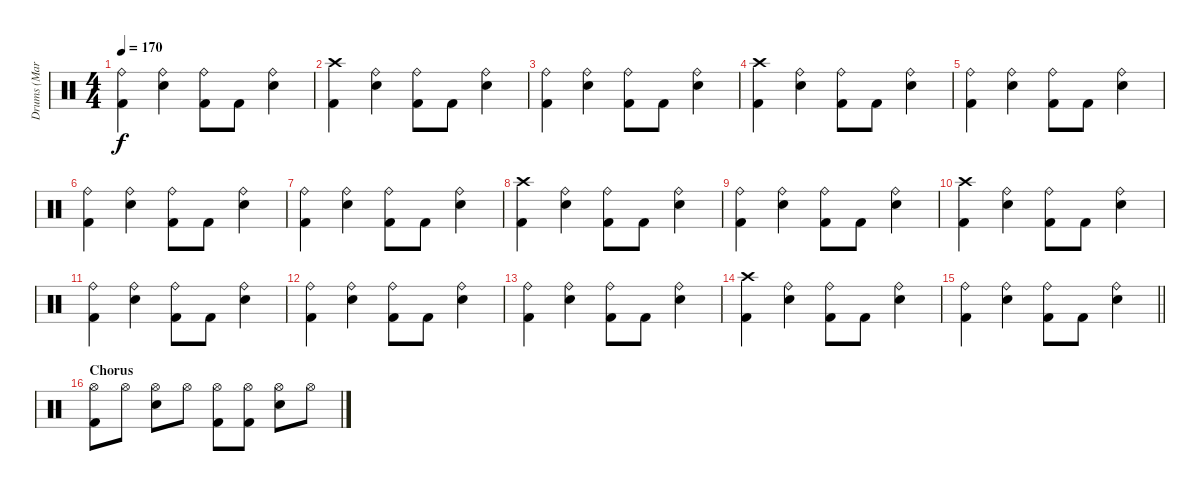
\track ("Drums (Marky)" "Drums (Mar") {instrument percussion}
\staff {score}
\articulation defaults
\ts (4 4)
\tempo 170
\clef neutral
\ks c
("Ride (bell)" "Kick (hit) 2").4{dy f} ("Ride (bell)" "Snare (hit) 2").4 ("Ride (bell)" "Kick (hit) 2").8 "Kick (hit) 2".8 ("Ride (bell)" "Snare (hit) 2").4 |
("Crash high (hit)" "Kick (hit) 2").4 ("Ride (bell)" "Snare (hit) 2").4 ("Ride (bell)" "Kick (hit) 2").8 "Kick (hit) 2".8 ("Ride (bell)" "Snare (hit) 2").4 |
("Ride (bell)" "Kick (hit) 2").4 ("Ride (bell)" "Snare (hit) 2").4 ("Ride (bell)" "Kick (hit) 2").8 "Kick (hit) 2".8 ("Ride (bell)" "Snare (hit) 2").4 |
("Crash high (hit)" "Kick (hit) 2").4 ("Ride (bell)" "Snare (hit) 2").4 ("Ride (bell)" "Kick (hit) 2").8 "Kick (hit) 2".8 ("Ride (bell)" "Snare (hit) 2").4 |
("Ride (bell)" "Kick (hit) 2").4 ("Ride (bell)" "Snare (hit) 2").4 ("Ride (bell)" "Kick (hit) 2").8 "Kick (hit) 2".8 ("Ride (bell)" "Snare (hit) 2").4 |
("Ride (bell)" "Kick (hit) 2").4 ("Ride (bell)" "Snare (hit) 2").4 ("Ride (bell)" "Kick (hit) 2").8 "Kick (hit) 2".8 ("Ride (bell)" "Snare (hit) 2").4 |
("Ride (bell)" "Kick (hit) 2").4 ("Ride (bell)" "Snare (hit) 2").4 ("Ride (bell)" "Kick (hit) 2").8 "Kick (hit) 2".8 ("Ride (bell)" "Snare (hit) 2").4 |
("Crash high (hit)" "Kick (hit) 2").4 ("Ride (bell)" "Snare (hit) 2").4 ("Ride (bell)" "Kick (hit) 2").8 "Kick (hit) 2".8 ("Ride (bell)" "Snare (hit) 2").4 |
("Ride (bell)" "Kick (hit) 2").4 ("Ride (bell)" "Snare (hit) 2").4 ("Ride (bell)" "Kick (hit) 2").8 "Kick (hit) 2".8 ("Ride (bell)" "Snare (hit) 2").4 |
("Crash high (hit)" "Kick (hit) 2").4 ("Ride (bell)" "Snare (hit) 2").4 ("Ride (bell)" "Kick (hit) 2").8 "Kick (hit) 2".8 ("Ride (bell)" "Snare (hit) 2").4 |
("Ride (bell)" "Kick (hit) 2").4 ("Ride (bell)" "Snare (hit) 2").4 ("Ride (bell)" "Kick (hit) 2").8 "Kick (hit) 2".8 ("Ride (bell)" "Snare (hit) 2").4 |
("Ride (bell)" "Kick (hit) 2").4 ("Ride (bell)" "Snare (hit) 2").4 ("Ride (bell)" "Kick (hit) 2").8 "Kick (hit) 2".8 ("Ride (bell)" "Snare (hit) 2").4 |
("Ride (bell)" "Kick (hit) 2").4 ("Ride (bell)" "Snare (hit) 2").4 ("Ride (bell)" "Kick (hit) 2").8 "Kick (hit) 2".8 ("Ride (bell)" "Snare (hit) 2").4 |
("Crash high (hit)" "Kick (hit) 2").4 ("Ride (bell)" "Snare (hit) 2").4 ("Ride (bell)" "Kick (hit) 2").8 "Kick (hit) 2".8 ("Ride (bell)" "Snare (hit) 2").4 |
\barLineRight lightlight
("Ride (bell)" "Kick (hit) 2").4 ("Ride (bell)" "Snare (hit) 2").4 ("Ride (bell)" "Kick (hit) 2").8 "Kick (hit) 2".8 ("Ride (bell)" "Snare (hit) 2").4 |
\section ("" "Chorus")
("Hi-Hat (open)" "Kick (hit) 2").8 "Hi-Hat (open)".8 ("Hi-Hat (open)" "Snare (hit) 2").8 "Hi-Hat (open)".8 ("Hi-Hat (open)" "Kick (hit) 2").8 ("Hi-Hat (open)" "Kick (hit) 2").8 ("Hi-Hat (open)" "Snare (hit) 2").8 "Hi-Hat (open)".8
